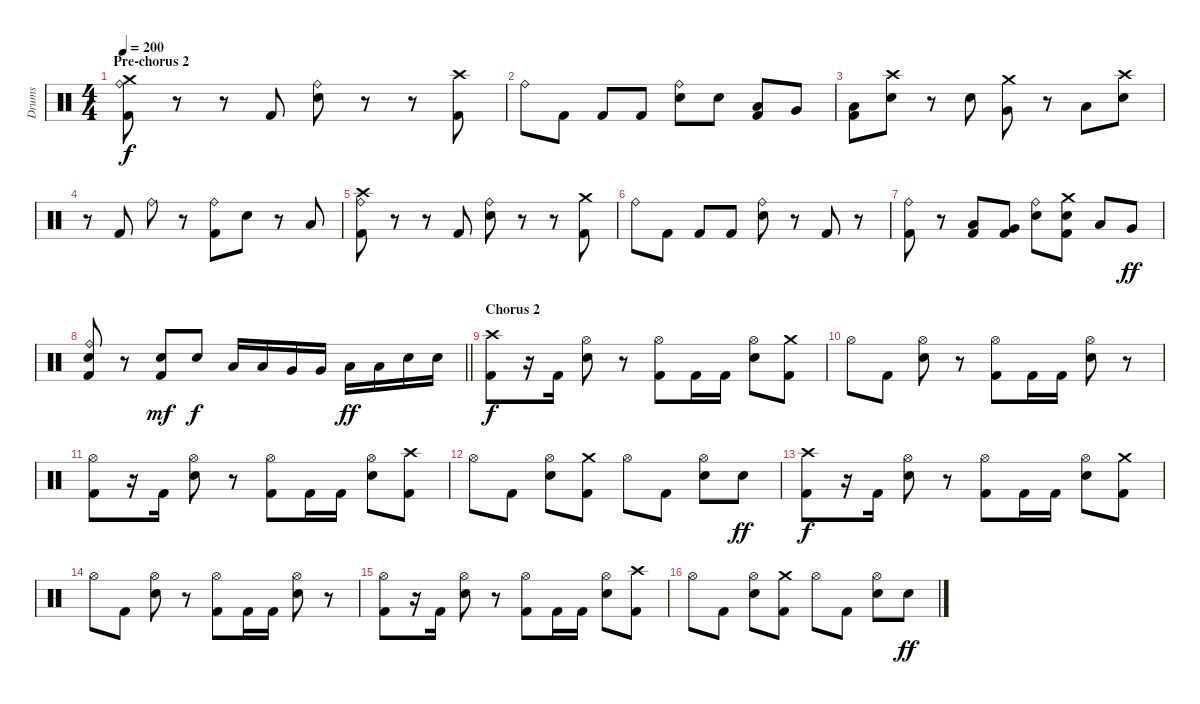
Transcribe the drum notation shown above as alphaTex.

\track ("Drums" "Drums") {instrument percussion}
\staff {score}
\articulation defaults
\ts (4 4)
\section ("" "Pre-chorus 2")
\tempo 200
\clef neutral
\ks c
("Kick (hit) 2" "Ride (bell)" "Crash medium (hit)").8{dy f} r.8 r.8 "Kick (hit) 2".8 ("Electric Snare (hit)" "Ride (bell)").8 r.8 r.8 ("Kick (hit) 2" "Crash high (hit)").8 |
"Ride (bell)".8 "Kick (hit) 2".8 "Kick (hit) 2".8 "Kick (hit) 2".8 ("Electric Snare (hit)" "Ride (bell)").8 "Electric Snare (hit)".8 ("Kick (hit) 2" "Low Tom (hit)").8 "Very Low Tom (hit)".8 |
("Kick (hit) 2" "Low Floor Tom (hit)").8 ("Electric Snare (hit)" "Crash high (hit)").8 r.8 "Electric Snare (hit)".8 ("Very Low Tom (hit)" "Crash medium (hit)").8 r.8 "Low Floor Tom (hit)".8 ("Electric Snare (hit)" "Crash high (hit)").8 |
r.8 "Kick (hit) 2".8 "Ride (bell)".8 r.8 ("Kick (hit) 2" "Ride (bell)").8 "Electric Snare (hit)".8 r.8 "Low Tom (hit)".8 |
("Kick (hit) 2" "Ride (bell)" "Crash high (hit)").8 r.8 r.8 "Kick (hit) 2".8 ("Electric Snare (hit)" "Ride (bell)").8 r.8 r.8 ("Kick (hit) 2" "Crash medium (hit)").8 |
"Ride (bell)".8 "Kick (hit) 2".8 "Kick (hit) 2".8 "Kick (hit) 2".8 ("Electric Snare (hit)" "Ride (bell)").8 r.8 "Kick (hit) 2".8 r.8 |
("Kick (hit) 2" "Ride (bell)").8 r.8 ("Kick (hit) 2" "Low Tom (hit)").8 ("Kick (hit) 2" "Very Low Tom (hit)").8 ("Electric Snare (hit)" "Ride (bell)").8 ("Kick (hit) 2" "Electric Snare (hit)" "Crash medium (hit)").8 "Low Tom (hit)".8 "Very Low Tom (hit)".8{dy ff} |
\barLineRight lightlight
("Kick (hit) 2" "Electric Snare (hit)" "Ride (bell)").8 r.8 ("Kick (hit) 2" "Electric Snare (hit)").8{dy mf} "Electric Snare (hit)".8{dy f} "Low Tom (hit)".16 "Low Tom (hit)".16 "Very Low Tom (hit)".16 "Very Low Tom (hit)".16 "Low Tom (hit)".16{dy ff} "Low Tom (hit)".16 "Electric Snare (hit)".16 "Electric Snare (hit)".16 |
\section ("" "Chorus 2")
("Kick (hit) 2" "Crash high (hit)").8{dy f} r.16 "Kick (hit) 2".16 ("Electric Snare (hit)" "Hi-Hat (open)").8 r.8 ("Kick (hit) 2" "Hi-Hat (open)").8 "Kick (hit) 2".16 "Kick (hit) 2".16 ("Electric Snare (hit)" "Hi-Hat (open)").8 ("Kick (hit) 2" "Crash medium (hit)").8 |
"Hi-Hat (open)".8 "Kick (hit) 2".8 ("Electric Snare (hit)" "Hi-Hat (open)").8 r.8 ("Kick (hit) 2" "Hi-Hat (open)").8 "Kick (hit) 2".16 "Kick (hit) 2".16 ("Electric Snare (hit)" "Hi-Hat (open)").8 r.8 |
("Kick (hit) 2" "Hi-Hat (open)").8 r.16 "Kick (hit) 2".16 ("Electric Snare (hit)" "Hi-Hat (open)").8 r.8 ("Kick (hit) 2" "Hi-Hat (open)").8 "Kick (hit) 2".16 "Kick (hit) 2".16 ("Electric Snare (hit)" "Hi-Hat (open)").8 ("Kick (hit) 2" "Crash high (hit)").8 |
"Hi-Hat (open)".8 "Kick (hit) 2".8 ("Electric Snare (hit)" "Hi-Hat (open)").8 ("Kick (hit) 2" "Crash medium (hit)").8 "Hi-Hat (open)".8 "Kick (hit) 2".8 ("Electric Snare (hit)" "Hi-Hat (open)").8 "Electric Snare (hit)".8{dy ff} |
("Kick (hit) 2" "Crash high (hit)").8{dy f} r.16 "Kick (hit) 2".16 ("Electric Snare (hit)" "Hi-Hat (open)").8 r.8 ("Kick (hit) 2" "Hi-Hat (open)").8 "Kick (hit) 2".16 "Kick (hit) 2".16 ("Electric Snare (hit)" "Hi-Hat (open)").8 ("Kick (hit) 2" "Crash medium (hit)").8 |
"Hi-Hat (open)".8 "Kick (hit) 2".8 ("Electric Snare (hit)" "Hi-Hat (open)").8 r.8 ("Kick (hit) 2" "Hi-Hat (open)").8 "Kick (hit) 2".16 "Kick (hit) 2".16 ("Electric Snare (hit)" "Hi-Hat (open)").8 r.8 |
("Kick (hit) 2" "Hi-Hat (open)").8 r.16 "Kick (hit) 2".16 ("Electric Snare (hit)" "Hi-Hat (open)").8 r.8 ("Kick (hit) 2" "Hi-Hat (open)").8 "Kick (hit) 2".16 "Kick (hit) 2".16 ("Electric Snare (hit)" "Hi-Hat (open)").8 ("Kick (hit) 2" "Crash high (hit)").8 |
"Hi-Hat (open)".8 "Kick (hit) 2".8 ("Electric Snare (hit)" "Hi-Hat (open)").8 ("Kick (hit) 2" "Crash medium (hit)").8 "Hi-Hat (open)".8 "Kick (hit) 2".8 ("Electric Snare (hit)" "Hi-Hat (open)").8 "Electric Snare (hit)".8{dy ff}
